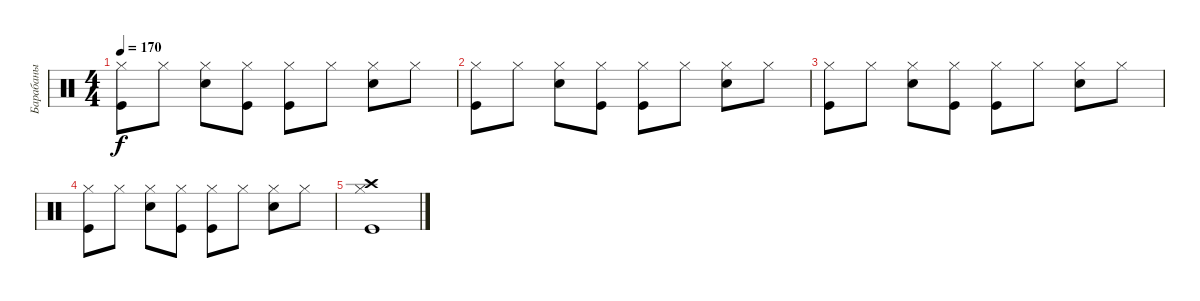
\track ("Барабаны" "Барабаны") {instrument percussion}
\staff {score}
\articulation defaults
\ts (4 4)
\tempo 170
\clef neutral
\ks c
("Kick (hit)" "Hi-Hat (closed)").8{dy f} "Hi-Hat (closed)".8 ("Snare (hit) 2" "Hi-Hat (closed)").8 ("Kick (hit)" "Hi-Hat (closed)").8 ("Kick (hit)" "Hi-Hat (closed)").8 "Hi-Hat (closed)".8 ("Snare (hit) 2" "Hi-Hat (closed)").8 "Hi-Hat (closed)".8 |
("Kick (hit)" "Hi-Hat (closed)").8 "Hi-Hat (closed)".8 ("Snare (hit) 2" "Hi-Hat (closed)").8 ("Kick (hit)" "Hi-Hat (closed)").8 ("Kick (hit)" "Hi-Hat (closed)").8 "Hi-Hat (closed)".8 ("Snare (hit) 2" "Hi-Hat (closed)").8 "Hi-Hat (closed)".8 |
("Kick (hit)" "Hi-Hat (closed)").8 "Hi-Hat (closed)".8 ("Snare (hit) 2" "Hi-Hat (closed)").8 ("Kick (hit)" "Hi-Hat (closed)").8 ("Kick (hit)" "Hi-Hat (closed)").8 "Hi-Hat (closed)".8 ("Snare (hit) 2" "Hi-Hat (closed)").8 "Hi-Hat (closed)".8 |
("Kick (hit)" "Hi-Hat (closed)").8 "Hi-Hat (closed)".8 ("Snare (hit) 2" "Hi-Hat (closed)").8 ("Kick (hit)" "Hi-Hat (closed)").8 ("Kick (hit)" "Hi-Hat (closed)").8 "Hi-Hat (closed)".8 ("Snare (hit) 2" "Hi-Hat (closed)").8 "Hi-Hat (closed)".8 |
("Kick (hit)" "Hi-Hat (closed)" "Crash high (hit)").1
